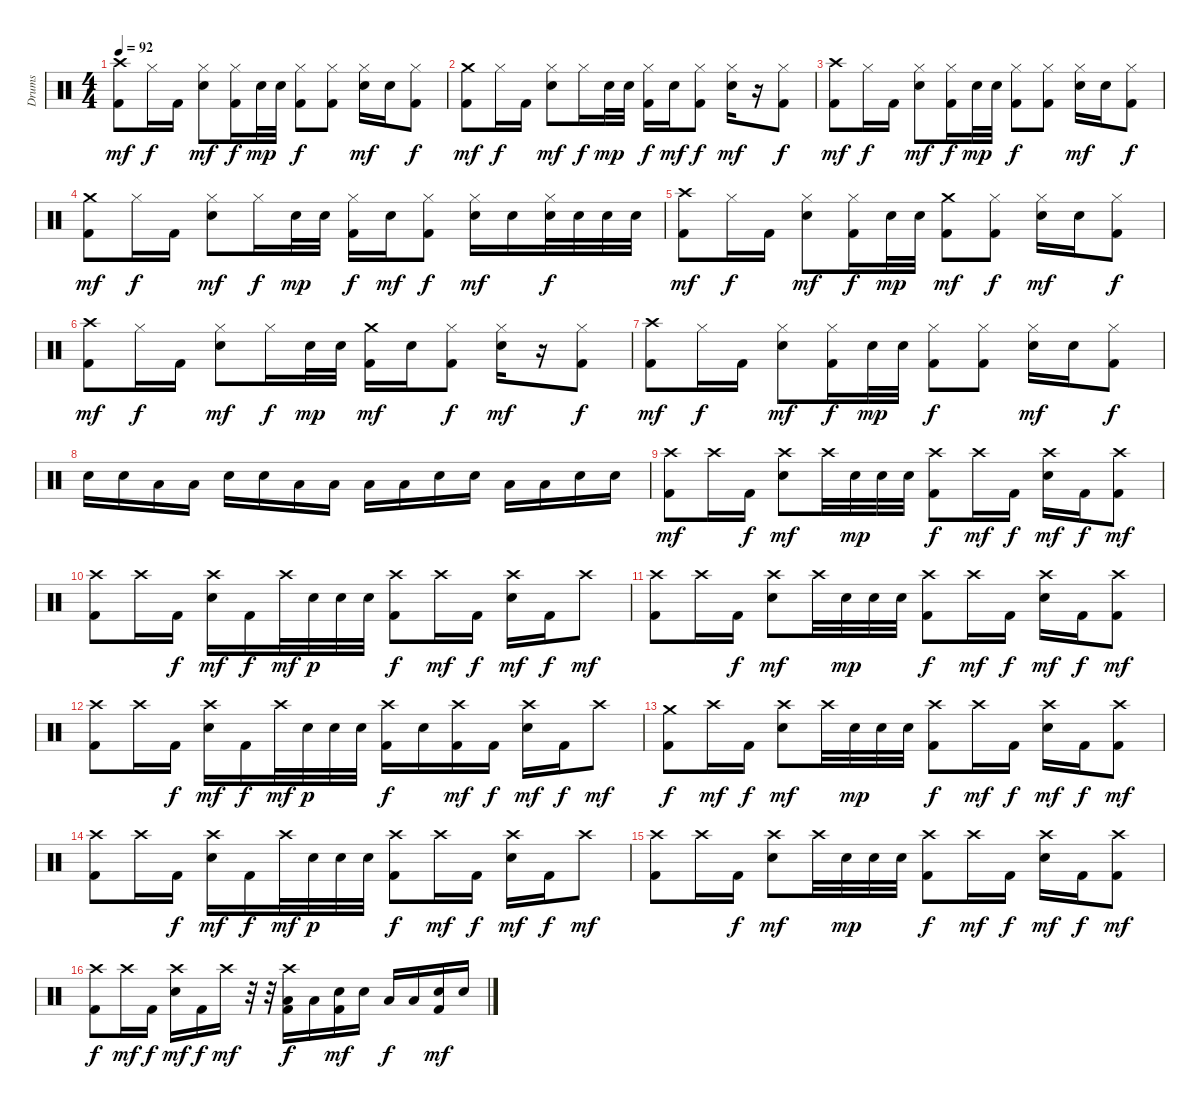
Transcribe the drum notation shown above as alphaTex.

\track ("Drums" "Drums") {instrument percussion}
\staff {score}
\articulation defaults
\ts (4 4)
\tempo 92
\clef neutral
\ks c
("Crash high (hit)" "Kick (hit) 2").8{dy mf} "Hi-Hat (closed)".16{dy f} "Kick (hit) 2".16 ("Hi-Hat (closed)" "Snare (hit) 2").8{dy mf} ("Hi-Hat (closed)" "Kick (hit) 2").16{dy f} "Snare (hit) 2".32{dy mp} "Snare (hit) 2".32 ("Hi-Hat (closed)" "Kick (hit) 2").8{dy f} ("Hi-Hat (closed)" "Kick (hit) 2").8 ("Hi-Hat (closed)" "Snare (hit) 2").16{dy mf} "Snare (hit) 2".16 ("Hi-Hat (closed)" "Kick (hit) 2").8{dy f} |
("Crash medium (hit)" "Kick (hit) 2").8{dy mf} "Hi-Hat (closed)".16{dy f} "Kick (hit) 2".16 ("Hi-Hat (closed)" "Snare (hit) 2").8{dy mf} "Hi-Hat (closed)".16{dy f} "Snare (hit) 2".32{dy mp} "Snare (hit) 2".32 ("Hi-Hat (closed)" "Kick (hit) 2").16{dy f} "Snare (hit) 2".16{dy mf} ("Hi-Hat (closed)" "Kick (hit) 2").8{dy f} ("Hi-Hat (closed)" "Snare (hit) 2").16{dy mf} r.16 ("Hi-Hat (closed)" "Kick (hit) 2").8{dy f} |
("Crash high (hit)" "Kick (hit) 2").8{dy mf} "Hi-Hat (closed)".16{dy f} "Kick (hit) 2".16 ("Hi-Hat (closed)" "Snare (hit) 2").8{dy mf} ("Hi-Hat (closed)" "Kick (hit) 2").16{dy f} "Snare (hit) 2".32{dy mp} "Snare (hit) 2".32 ("Hi-Hat (closed)" "Kick (hit) 2").8{dy f} ("Hi-Hat (closed)" "Kick (hit) 2").8 ("Hi-Hat (closed)" "Snare (hit) 2").16{dy mf} "Snare (hit) 2".16 ("Hi-Hat (closed)" "Kick (hit) 2").8{dy f} |
("Crash medium (hit)" "Kick (hit) 2").8{dy mf} "Hi-Hat (closed)".16{dy f} "Kick (hit) 2".16 ("Hi-Hat (closed)" "Snare (hit) 2").8{dy mf} "Hi-Hat (closed)".16{dy f} "Snare (hit) 2".32{dy mp} "Snare (hit) 2".32 ("Hi-Hat (closed)" "Kick (hit) 2").16{dy f} "Snare (hit) 2".16{dy mf} ("Hi-Hat (closed)" "Kick (hit) 2").8{dy f} ("Hi-Hat (closed)" "Snare (hit) 2").16{dy mf} "Snare (hit) 2".16 ("Hi-Hat (closed)" "Snare (hit) 2").32{dy f} "Snare (hit) 2".32 "Snare (hit) 2".32 "Snare (hit) 2".32 |
("Crash high (hit)" "Kick (hit) 2").8{dy mf} "Hi-Hat (closed)".16{dy f} "Kick (hit) 2".16 ("Hi-Hat (closed)" "Snare (hit) 2").8{dy mf} ("Hi-Hat (closed)" "Kick (hit) 2").16{dy f} "Snare (hit) 2".32{dy mp} "Snare (hit) 2".32 ("Crash medium (hit)" "Kick (hit) 2").8{dy mf} ("Hi-Hat (closed)" "Kick (hit) 2").8{dy f} ("Hi-Hat (closed)" "Snare (hit) 2").16{dy mf} "Snare (hit) 2".16 ("Hi-Hat (closed)" "Kick (hit) 2").8{dy f} |
("Crash high (hit)" "Kick (hit) 2").8{dy mf} "Hi-Hat (closed)".16{dy f} "Kick (hit) 2".16 ("Hi-Hat (closed)" "Snare (hit) 2").8{dy mf} "Hi-Hat (closed)".16{dy f} "Snare (hit) 2".32{dy mp} "Snare (hit) 2".32 ("Crash medium (hit)" "Kick (hit) 2").16{dy mf} "Snare (hit) 2".16 ("Hi-Hat (closed)" "Kick (hit) 2").8{dy f} ("Hi-Hat (closed)" "Snare (hit) 2").16{dy mf} r.16 ("Hi-Hat (closed)" "Kick (hit) 2").8{dy f} |
("Crash high (hit)" "Kick (hit) 2").8{dy mf} "Hi-Hat (closed)".16{dy f} "Kick (hit) 2".16 ("Hi-Hat (closed)" "Snare (hit) 2").8{dy mf} ("Hi-Hat (closed)" "Kick (hit) 2").16{dy f} "Snare (hit) 2".32{dy mp} "Snare (hit) 2".32 ("Hi-Hat (closed)" "Kick (hit) 2").8{dy f} ("Hi-Hat (closed)" "Kick (hit) 2").8 ("Hi-Hat (closed)" "Snare (hit) 2").16{dy mf} "Snare (hit) 2".16 ("Hi-Hat (closed)" "Kick (hit) 2").8{dy f} |
"Snare (hit) 2".16 "Snare (hit) 2".16 "Low Tom (hit)".16 "Low Tom (hit)".16 "Snare (hit) 2".16 "Snare (hit) 2".16 "Low Tom (hit)".16 "Low Tom (hit)".16 "Low Tom (hit)".16 "Low Tom (hit)".16 "Snare (hit) 2".16 "Snare (hit) 2".16 "Low Tom (hit)".16 "Low Tom (hit)".16 "Snare (hit) 2".16 "Snare (hit) 2".16 |
("Crash high (hit)" "Kick (hit) 2").8{dy mf} "Crash high (hit)".16 "Kick (hit) 2".16{dy f} ("Crash high (hit)" "Snare (hit) 2").8{dy mf} "Crash high (hit)".32 "Snare (hit) 2".32{dy mp} "Snare (hit) 2".32 "Snare (hit) 2".32 ("Crash high (hit)" "Kick (hit) 2").8{dy f} "Crash high (hit)".16{dy mf} "Kick (hit) 2".16{dy f} ("Crash high (hit)" "Snare (hit) 2").16{dy mf} "Kick (hit) 2".16{dy f} ("Crash high (hit)" "Kick (hit) 2").8{dy mf} |
("Crash high (hit)" "Kick (hit) 2").8 "Crash high (hit)".16 "Kick (hit) 2".16{dy f} ("Crash high (hit)" "Snare (hit) 2").16{dy mf} "Kick (hit) 2".16{dy f} "Crash high (hit)".32{dy mf} "Snare (hit) 2".32{dy p} "Snare (hit) 2".32 "Snare (hit) 2".32 ("Crash high (hit)" "Kick (hit) 2").8{dy f} "Crash high (hit)".16{dy mf} "Kick (hit) 2".16{dy f} ("Crash high (hit)" "Snare (hit) 2").16{dy mf} "Kick (hit) 2".16{dy f} "Crash high (hit)".8{dy mf} |
("Crash high (hit)" "Kick (hit) 2").8 "Crash high (hit)".16 "Kick (hit) 2".16{dy f} ("Crash high (hit)" "Snare (hit) 2").8{dy mf} "Crash high (hit)".32 "Snare (hit) 2".32{dy mp} "Snare (hit) 2".32 "Snare (hit) 2".32 ("Crash high (hit)" "Kick (hit) 2").8{dy f} "Crash high (hit)".16{dy mf} "Kick (hit) 2".16{dy f} ("Crash high (hit)" "Snare (hit) 2").16{dy mf} "Kick (hit) 2".16{dy f} ("Crash high (hit)" "Kick (hit) 2").8{dy mf} |
("Crash high (hit)" "Kick (hit) 2").8 "Crash high (hit)".16 "Kick (hit) 2".16{dy f} ("Crash high (hit)" "Snare (hit) 2").16{dy mf} "Kick (hit) 2".16{dy f} "Crash high (hit)".32{dy mf} "Snare (hit) 2".32{dy p} "Snare (hit) 2".32 "Snare (hit) 2".32 ("Crash high (hit)" "Kick (hit) 2").16{dy f} "Snare (hit) 2".16 ("Crash high (hit)" "Kick (hit) 2").16{dy mf} "Kick (hit) 2".16{dy f} ("Crash high (hit)" "Snare (hit) 2").16{dy mf} "Kick (hit) 2".16{dy f} "Crash high (hit)".8{dy mf} |
("Crash medium (hit)" "Kick (hit) 2").8{dy f} "Crash high (hit)".16{dy mf} "Kick (hit) 2".16{dy f} ("Crash high (hit)" "Snare (hit) 2").8{dy mf} "Crash high (hit)".32 "Snare (hit) 2".32{dy mp} "Snare (hit) 2".32 "Snare (hit) 2".32 ("Crash high (hit)" "Kick (hit) 2").8{dy f} "Crash high (hit)".16{dy mf} "Kick (hit) 2".16{dy f} ("Crash high (hit)" "Snare (hit) 2").16{dy mf} "Kick (hit) 2".16{dy f} ("Crash high (hit)" "Kick (hit) 2").8{dy mf} |
("Crash high (hit)" "Kick (hit) 2").8 "Crash high (hit)".16 "Kick (hit) 2".16{dy f} ("Crash high (hit)" "Snare (hit) 2").16{dy mf} "Kick (hit) 2".16{dy f} "Crash high (hit)".32{dy mf} "Snare (hit) 2".32{dy p} "Snare (hit) 2".32 "Snare (hit) 2".32 ("Crash high (hit)" "Kick (hit) 2").8{dy f} "Crash high (hit)".16{dy mf} "Kick (hit) 2".16{dy f} ("Crash high (hit)" "Snare (hit) 2").16{dy mf} "Kick (hit) 2".16{dy f} "Crash high (hit)".8{dy mf} |
("Crash high (hit)" "Kick (hit) 2").8 "Crash high (hit)".16 "Kick (hit) 2".16{dy f} ("Crash high (hit)" "Snare (hit) 2").8{dy mf} "Crash high (hit)".32 "Snare (hit) 2".32{dy mp} "Snare (hit) 2".32 "Snare (hit) 2".32 ("Crash high (hit)" "Kick (hit) 2").8{dy f} "Crash high (hit)".16{dy mf} "Kick (hit) 2".16{dy f} ("Crash high (hit)" "Snare (hit) 2").16{dy mf} "Kick (hit) 2".16{dy f} ("Crash high (hit)" "Kick (hit) 2").8{dy mf} |
("Crash high (hit)" "Kick (hit) 2").8{dy f} "Crash high (hit)".16{dy mf} "Kick (hit) 2".16{dy f} ("Crash high (hit)" "Snare (hit) 2").16{dy mf} "Kick (hit) 2".16{dy f} "Crash high (hit)".16{dy mf} r.32 r.32 ("Crash high (hit)" "Low Tom (hit)" "Kick (hit) 2").16{dy f} "Low Tom (hit)".16 ("Snare (hit) 2" "Kick (hit) 2").16{dy mf} "Snare (hit) 2".16 "Low Tom (hit)".16{dy f} "Low Tom (hit)".16 ("Snare (hit) 2" "Kick (hit) 2").16{dy mf} "Snare (hit) 2".16
